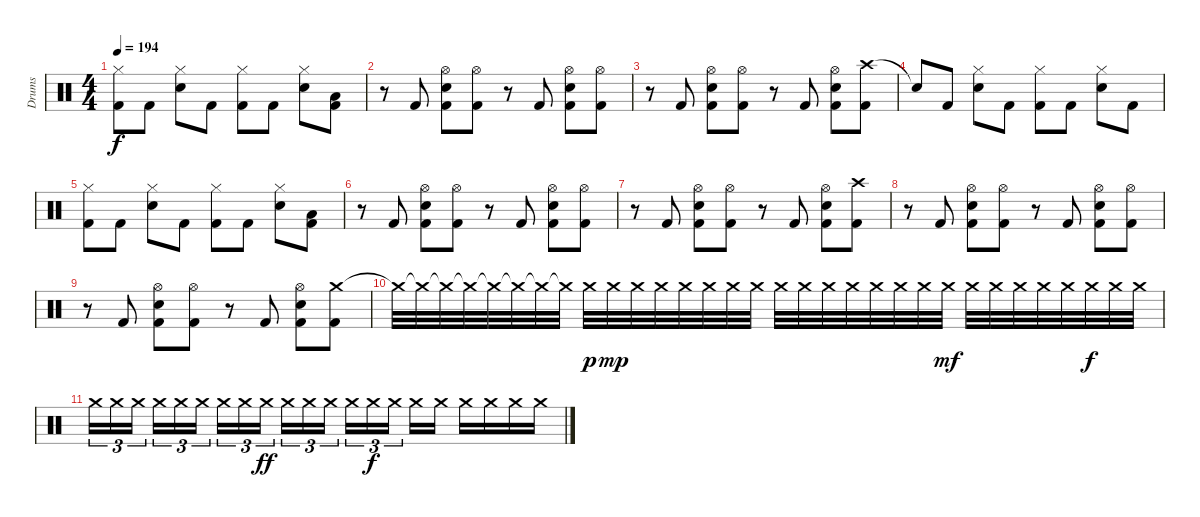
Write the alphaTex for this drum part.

\track ("Drums" "Drums") {instrument percussion}
\staff {score}
\articulation defaults
\ts (4 4)
\tempo 194
\clef neutral
\ks c
("Hi-Hat (closed)" "Kick (hit) 2").8{dy f} "Kick (hit) 2".8 ("Hi-Hat (closed)" "Snare (hit) 2").8 "Kick (hit) 2".8 ("Hi-Hat (closed)" "Kick (hit) 2").8 "Kick (hit) 2".8 ("Hi-Hat (closed)" "Snare (hit) 2").8 ("Low Tom (hit)" "Kick (hit) 2").8 |
r.8 "Kick (hit) 2".8 ("Hi-Hat (open)" "Snare (hit) 2" "Kick (hit) 2").8 ("Hi-Hat (open)" "Kick (hit) 2").8 r.8 "Kick (hit) 2".8 ("Hi-Hat (open)" "Snare (hit) 2" "Kick (hit) 2").8 ("Hi-Hat (open)" "Kick (hit) 2").8 |
r.8 "Kick (hit) 2".8 ("Hi-Hat (open)" "Snare (hit) 2" "Kick (hit) 2").8 ("Hi-Hat (open)" "Kick (hit) 2").8 r.8 "Kick (hit) 2".8 ("Hi-Hat (open)" "Snare (hit) 2" "Kick (hit) 2").8 ("Crash high (hit)" "Kick (hit) 2").8 |
"Snare (hit)"{t}.8 "Kick (hit) 2".8 ("Hi-Hat (closed)" "Snare (hit) 2").8 "Kick (hit) 2".8 ("Hi-Hat (closed)" "Kick (hit) 2").8 "Kick (hit) 2".8 ("Hi-Hat (closed)" "Snare (hit) 2").8 "Kick (hit) 2".8 |
("Hi-Hat (closed)" "Kick (hit) 2").8 "Kick (hit) 2".8 ("Hi-Hat (closed)" "Snare (hit) 2").8 "Kick (hit) 2".8 ("Hi-Hat (closed)" "Kick (hit) 2").8 "Kick (hit) 2".8 ("Hi-Hat (closed)" "Snare (hit) 2").8 ("Low Tom (hit)" "Kick (hit) 2").8 |
r.8 "Kick (hit) 2".8 ("Hi-Hat (open)" "Snare (hit) 2" "Kick (hit) 2").8 ("Hi-Hat (open)" "Kick (hit) 2").8 r.8 "Kick (hit) 2".8 ("Hi-Hat (open)" "Snare (hit) 2" "Kick (hit) 2").8 ("Hi-Hat (open)" "Kick (hit) 2").8 |
r.8 "Kick (hit) 2".8 ("Hi-Hat (open)" "Snare (hit) 2" "Kick (hit) 2").8 ("Hi-Hat (open)" "Kick (hit) 2").8 r.8 "Kick (hit) 2".8 ("Hi-Hat (open)" "Snare (hit) 2" "Kick (hit) 2").8 ("Crash high (hit)" "Kick (hit) 2").8 |
r.8 "Kick (hit) 2".8 ("Hi-Hat (open)" "Snare (hit) 2" "Kick (hit) 2").8 ("Hi-Hat (open)" "Kick (hit) 2").8 r.8 "Kick (hit) 2".8 ("Hi-Hat (open)" "Snare (hit) 2" "Kick (hit) 2").8 ("Hi-Hat (open)" "Kick (hit) 2").8 |
r.8 "Kick (hit) 2".8 ("Hi-Hat (open)" "Snare (hit) 2" "Kick (hit) 2").8 ("Hi-Hat (open)" "Kick (hit) 2").8 r.8 "Kick (hit) 2".8 ("Hi-Hat (open)" "Snare (hit) 2" "Kick (hit) 2").8 ("Crash medium (hit)" "Kick (hit) 2").8 |
"Crash medium (hit)"{t}.32 "Crash medium (hit)"{t}.32 "Crash medium (hit)"{t}.32 "Crash medium (hit)"{t}.32 "Crash medium (hit)"{t}.32 "Crash medium (hit)"{t}.32 "Crash medium (hit)"{t}.32 "Crash medium (hit)"{t}.32 "Crash medium (hit)".32{dy p} "Crash medium (hit)".32{dy mp} "Crash medium (hit)".32 "Crash medium (hit)".32 "Crash medium (hit)".32 "Crash medium (hit)".32 "Crash medium (hit)".32 "Crash medium (hit)".32 "Crash medium (hit)".32 "Crash medium (hit)".32 "Crash medium (hit)".32 "Crash medium (hit)".32 "Crash medium (hit)".32 "Crash medium (hit)".32 "Crash medium (hit)".32 "Crash medium (hit)".32{dy mf} "Crash medium (hit)".32 "Crash medium (hit)".32 "Crash medium (hit)".32 "Crash medium (hit)".32 "Crash medium (hit)".32 "Crash medium (hit)".32{dy f} "Crash medium (hit)".32 "Crash medium (hit)".32 |
"Crash medium (hit)".16{tu (3 2)} "Crash medium (hit)".16{tu (3 2)} "Crash medium (hit)".16{tu (3 2) beam splitsecondary} "Crash medium (hit)".16{tu (3 2)} "Crash medium (hit)".16{tu (3 2)} "Crash medium (hit)".16{tu (3 2)} "Crash medium (hit)".16{tu (3 2)} "Crash medium (hit)".16{tu (3 2)} "Crash medium (hit)".16{tu (3 2) dy ff beam splitsecondary} "Crash medium (hit)".16{tu (3 2)} "Crash medium (hit)".16{tu (3 2)} "Crash medium (hit)".16{tu (3 2)} "Crash medium (hit)".16{tu (3 2)} "Crash medium (hit)".16{tu (3 2) dy f} "Crash medium (hit)".16{tu (3 2) beam splitsecondary} "Crash medium (hit)".16 "Crash medium (hit)".16 "Crash medium (hit)".16 "Crash medium (hit)".16 "Crash medium (hit)".16 "Crash medium (hit)".16
